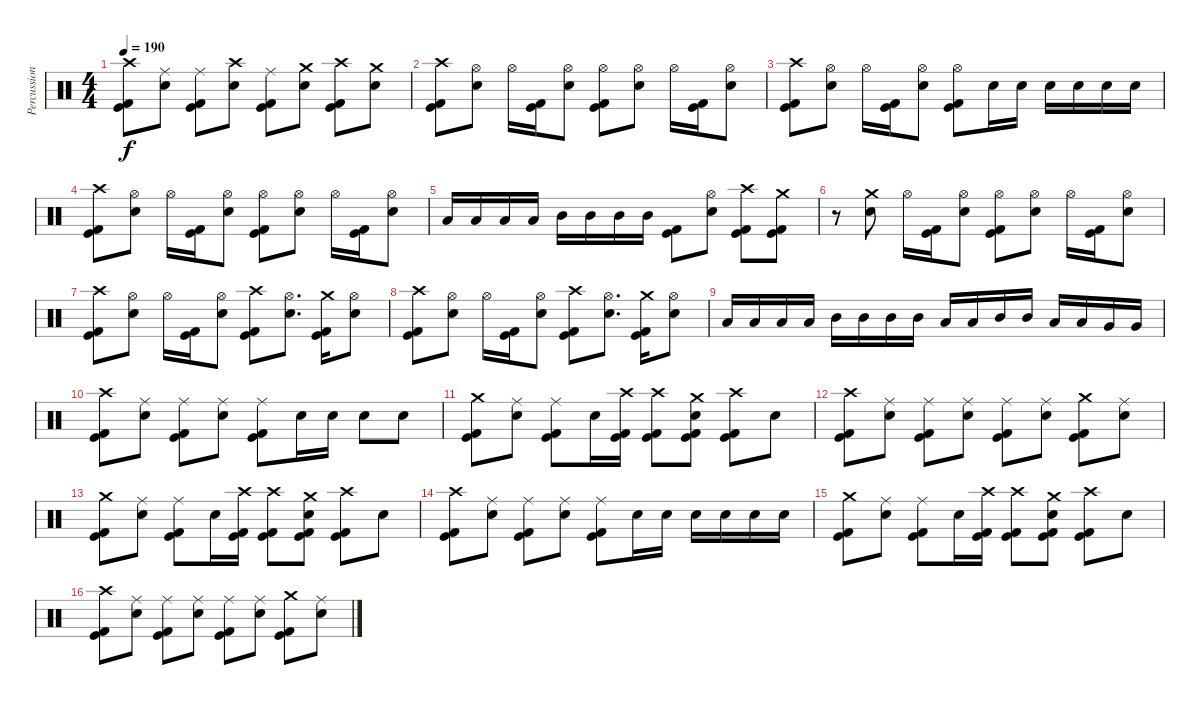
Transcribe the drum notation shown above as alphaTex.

\track ("Percussion" "Percussion") {instrument percussion}
\staff {score}
\articulation defaults
\ts (4 4)
\tempo 190
\clef neutral
\ks c
("Crash high (hit)" "Kick (hit)" "Kick (hit) 2").8{dy f} ("Ride (middle)" "Electric Snare (hit)").8 ("Ride (middle)" "Kick (hit)" "Kick (hit) 2").8 ("Crash high (hit)" "Electric Snare (hit)").8 ("Ride (middle)" "Kick (hit)" "Kick (hit) 2").8 ("Crash medium (hit)" "Electric Snare (hit)").8 ("Crash high (hit)" "Kick (hit)" "Kick (hit) 2").8 ("Crash medium (hit)" "Electric Snare (hit)").8 |
("Crash high (hit)" "Kick (hit)" "Kick (hit) 2").8 ("Hi-Hat (open)" "Electric Snare (hit)").8 "Hi-Hat (open)".16 ("Kick (hit)" "Kick (hit) 2").16 ("Hi-Hat (open)" "Electric Snare (hit)").8 ("Hi-Hat (open)" "Kick (hit)" "Kick (hit) 2").8 ("Hi-Hat (open)" "Electric Snare (hit)").8 "Hi-Hat (open)".16 ("Kick (hit)" "Kick (hit) 2").16 ("Hi-Hat (open)" "Electric Snare (hit)").8 |
("Crash high (hit)" "Kick (hit)" "Kick (hit) 2").8 ("Hi-Hat (open)" "Electric Snare (hit)").8 "Hi-Hat (open)".16 ("Kick (hit)" "Kick (hit) 2").16 ("Hi-Hat (open)" "Electric Snare (hit)").8 ("Hi-Hat (open)" "Kick (hit)" "Kick (hit) 2").8 "Electric Snare (hit)".16 "Electric Snare (hit)".16 "Electric Snare (hit)".16 "Electric Snare (hit)".16 "Electric Snare (hit)".16 "Electric Snare (hit)".16 |
("Crash high (hit)" "Kick (hit)" "Kick (hit) 2").8 ("Hi-Hat (open)" "Electric Snare (hit)").8 "Hi-Hat (open)".16 ("Kick (hit)" "Kick (hit) 2").16 ("Hi-Hat (open)" "Electric Snare (hit)").8 ("Hi-Hat (open)" "Kick (hit)" "Kick (hit) 2").8 ("Hi-Hat (open)" "Electric Snare (hit)").8 "Hi-Hat (open)".16 ("Kick (hit)" "Kick (hit) 2").16 ("Hi-Hat (open)" "Electric Snare (hit)").8 |
"Low Tom (hit)".16 "Low Tom (hit)".16 "Low Tom (hit)".16 "Low Tom (hit)".16 "Mid Tom (hit)".16 "Mid Tom (hit)".16 "Mid Tom (hit)".16 "Mid Tom (hit)".16 ("Kick (hit)" "Kick (hit) 2").8 ("Hi-Hat (open)" "Electric Snare (hit)").8 ("Crash high (hit)" "Kick (hit)" "Kick (hit) 2").8 ("Crash medium (hit)" "Kick (hit)" "Kick (hit) 2").8 |
r.8 ("Crash medium (hit)" "Electric Snare (hit)").8 "Hi-Hat (open)".16 ("Kick (hit)" "Kick (hit) 2").16 ("Hi-Hat (open)" "Electric Snare (hit)").8 ("Hi-Hat (open)" "Kick (hit)" "Kick (hit) 2").8 ("Hi-Hat (open)" "Electric Snare (hit)").8 "Hi-Hat (open)".16 ("Kick (hit)" "Kick (hit) 2").16 ("Hi-Hat (open)" "Electric Snare (hit)").8 |
("Crash high (hit)" "Kick (hit)" "Kick (hit) 2").8 ("Hi-Hat (open)" "Electric Snare (hit)").8 "Hi-Hat (open)".16 ("Kick (hit)" "Kick (hit) 2").16 ("Hi-Hat (open)" "Electric Snare (hit)").8 ("Crash high (hit)" "Kick (hit)" "Kick (hit) 2").8 ("Hi-Hat (open)" "Electric Snare (hit)").8{d} ("Crash medium (hit)" "Kick (hit)" "Kick (hit) 2").16 ("Hi-Hat (open)" "Electric Snare (hit)").8 |
("Crash high (hit)" "Kick (hit)" "Kick (hit) 2").8 ("Hi-Hat (open)" "Electric Snare (hit)").8 "Hi-Hat (open)".16 ("Kick (hit)" "Kick (hit) 2").16 ("Hi-Hat (open)" "Electric Snare (hit)").8 ("Crash high (hit)" "Kick (hit)" "Kick (hit) 2").8 ("Hi-Hat (open)" "Electric Snare (hit)").8{d} ("Crash medium (hit)" "Kick (hit)" "Kick (hit) 2").16 ("Hi-Hat (open)" "Electric Snare (hit)").8 |
"Low Tom (hit)".16 "Low Tom (hit)".16 "Low Tom (hit)".16 "Low Tom (hit)".16 "Mid Tom (hit)".16 "Mid Tom (hit)".16 "Mid Tom (hit)".16 "Mid Tom (hit)".16 "Low Tom (hit)".16 "Low Tom (hit)".16 "Mid Tom (hit)".16 "Mid Tom (hit)".16 "Low Tom (hit)".16 "Low Tom (hit)".16 "Very Low Tom (hit)".16 "Very Low Tom (hit)".16 |
("Crash high (hit)" "Kick (hit)" "Kick (hit) 2").8 ("Ride (middle)" "Electric Snare (hit)").8 ("Ride (middle)" "Kick (hit)" "Kick (hit) 2").8 ("Ride (middle)" "Electric Snare (hit)").8 ("Ride (middle)" "Kick (hit)" "Kick (hit) 2").8 "Electric Snare (hit)".16 "Electric Snare (hit)".16 "Electric Snare (hit)".8 "Electric Snare (hit)".8 |
("Crash medium (hit)" "Kick (hit)" "Kick (hit) 2").8 ("Ride (middle)" "Electric Snare (hit)").8 ("Ride (middle)" "Kick (hit)" "Kick (hit) 2").8 "Electric Snare (hit)".16 ("Crash high (hit)" "Kick (hit)" "Kick (hit) 2").16 ("Crash high (hit)" "Kick (hit)" "Kick (hit) 2").8 ("Crash medium (hit)" "Electric Snare (hit)" "Kick (hit)" "Kick (hit) 2").8 ("Crash high (hit)" "Kick (hit)" "Kick (hit) 2").8 "Electric Snare (hit)".8 |
("Crash high (hit)" "Kick (hit)" "Kick (hit) 2").8 ("Ride (middle)" "Electric Snare (hit)").8 ("Ride (middle)" "Kick (hit)" "Kick (hit) 2").8 ("Ride (middle)" "Electric Snare (hit)").8 ("Ride (middle)" "Kick (hit)" "Kick (hit) 2").8 ("Ride (middle)" "Electric Snare (hit)").8 ("Crash medium (hit)" "Kick (hit)" "Kick (hit) 2").8 ("Ride (middle)" "Electric Snare (hit)").8 |
("Crash medium (hit)" "Kick (hit)" "Kick (hit) 2").8 ("Ride (middle)" "Electric Snare (hit)").8 ("Ride (middle)" "Kick (hit)" "Kick (hit) 2").8 "Electric Snare (hit)".16 ("Crash high (hit)" "Kick (hit)" "Kick (hit) 2").16 ("Crash high (hit)" "Kick (hit)" "Kick (hit) 2").8 ("Crash medium (hit)" "Electric Snare (hit)" "Kick (hit)" "Kick (hit) 2").8 ("Crash high (hit)" "Kick (hit)" "Kick (hit) 2").8 "Electric Snare (hit)".8 |
("Crash high (hit)" "Kick (hit)" "Kick (hit) 2").8 ("Ride (middle)" "Electric Snare (hit)").8 ("Ride (middle)" "Kick (hit)" "Kick (hit) 2").8 ("Ride (middle)" "Electric Snare (hit)").8 ("Ride (middle)" "Kick (hit)" "Kick (hit) 2").8 "Electric Snare (hit)".16 "Electric Snare (hit)".16 "Electric Snare (hit)".16 "Electric Snare (hit)".16 "Electric Snare (hit)".16 "Electric Snare (hit)".16 |
("Crash medium (hit)" "Kick (hit)" "Kick (hit) 2").8 ("Ride (middle)" "Electric Snare (hit)").8 ("Ride (middle)" "Kick (hit)" "Kick (hit) 2").8 "Electric Snare (hit)".16 ("Crash high (hit)" "Kick (hit)" "Kick (hit) 2").16 ("Crash high (hit)" "Kick (hit)" "Kick (hit) 2").8 ("Crash medium (hit)" "Electric Snare (hit)" "Kick (hit)" "Kick (hit) 2").8 ("Crash high (hit)" "Kick (hit)" "Kick (hit) 2").8 "Electric Snare (hit)".8 |
("Crash high (hit)" "Kick (hit)" "Kick (hit) 2").8 ("Ride (middle)" "Electric Snare (hit)").8 ("Ride (middle)" "Kick (hit)" "Kick (hit) 2").8 ("Ride (middle)" "Electric Snare (hit)").8 ("Ride (middle)" "Kick (hit)" "Kick (hit) 2").8 ("Ride (middle)" "Electric Snare (hit)").8 ("Crash medium (hit)" "Kick (hit)" "Kick (hit) 2").8 ("Ride (middle)" "Electric Snare (hit)").8
